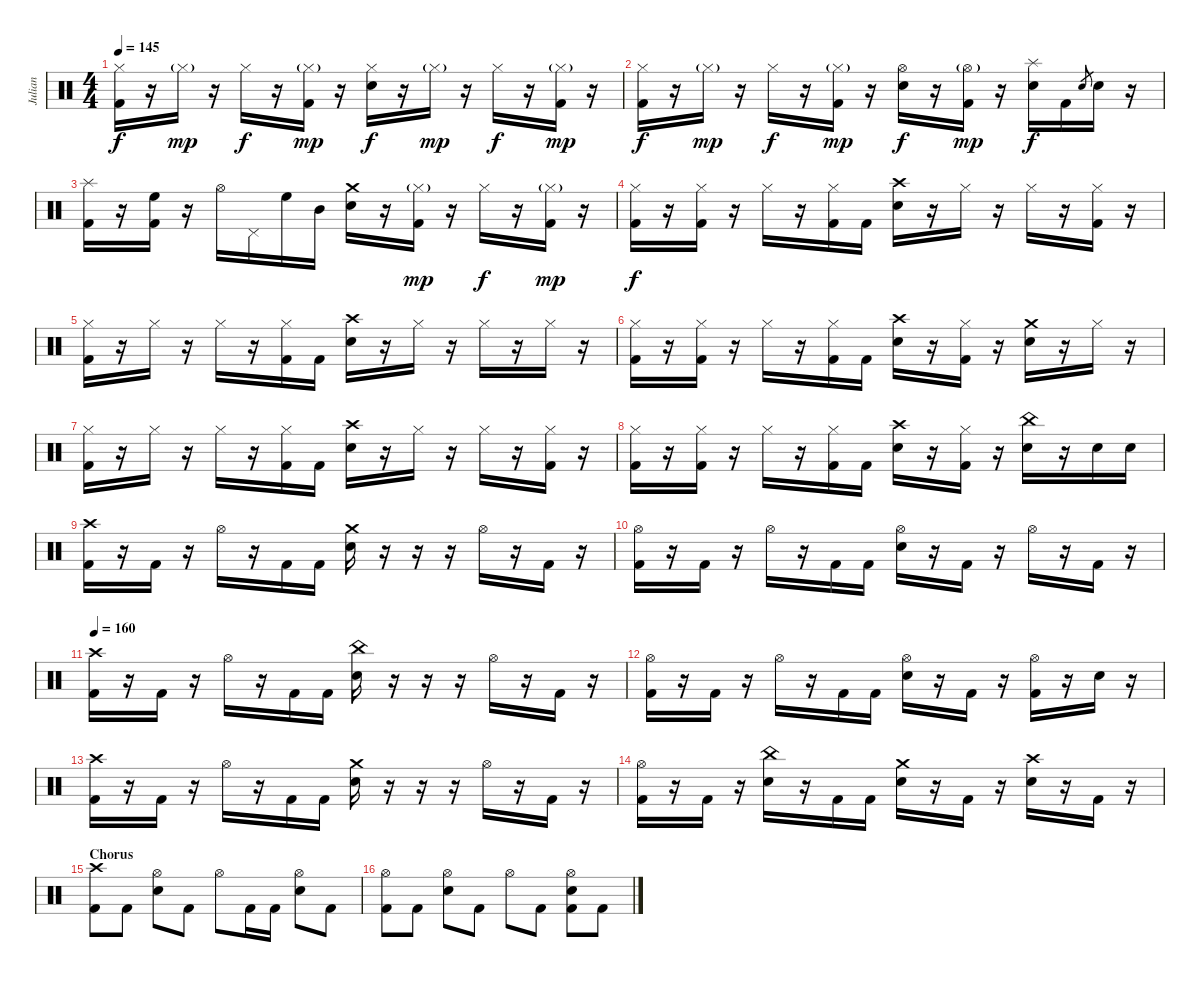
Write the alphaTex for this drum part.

\track ("Julian" "Julian") {instrument percussion}
\staff {score}
\articulation defaults
\ts (4 4)
\tempo 145
\clef neutral
\ks c
("Hi-Hat (closed)" "Kick (hit) 2").16{dy f} r.16 "Hi-Hat (closed)"{g}.16{dy mp} r.16 "Hi-Hat (closed)".16{dy f} r.16 ("Hi-Hat (closed)"{g} "Kick (hit) 2").16{dy mp} r.16 ("Hi-Hat (closed)" "Electric Snare (hit)").16{dy f} r.16 "Hi-Hat (closed)"{g}.16{dy mp} r.16 "Hi-Hat (closed)".16{dy f} r.16 ("Hi-Hat (closed)"{g} "Kick (hit) 2").16{dy mp} r.16 |
("Hi-Hat (closed)" "Kick (hit) 2").16{dy f} r.16 "Hi-Hat (closed)"{g}.16{dy mp} r.16 "Hi-Hat (closed)".16{dy f} r.16 ("Hi-Hat (closed)"{g} "Kick (hit) 2").16{dy mp} r.16 ("Hi-Hat (open)" "Electric Snare (hit)").16{dy f} r.16 ("Hi-Hat (open)"{g} "Kick (hit) 2").16{dy mp} r.16 ("Splash (hit)" "Electric Snare (hit)").16{dy f} "Kick (hit) 2".16 "Electric Snare (hit)".8{gr} "Electric Snare (hit)".16 r.16 |
\section ("" "")
("Splash (hit)" "Kick (hit) 2").16 r.16 ("High Floor Tom (hit)" "Kick (hit) 2").16 r.16 "Hi-Hat (open)".16 "Pedal Hi-Hat (hit)".16 "High Floor Tom (hit)".16 "Mid Tom (hit)".16 ("Crash medium (hit)" "Electric Snare (hit)").16 r.16 ("Hi-Hat (closed)"{g} "Kick (hit) 2").16{dy mp} r.16 "Hi-Hat (closed)".16{dy f} r.16 ("Hi-Hat (closed)"{g} "Kick (hit) 2").16{dy mp} r.16 |
("Hi-Hat (closed)" "Kick (hit) 2").16{dy f} r.16 ("Hi-Hat (closed)" "Kick (hit) 2").16 r.16 "Hi-Hat (closed)".16 r.16 ("Hi-Hat (closed)" "Kick (hit) 2").16 "Kick (hit) 2".16 ("Crash high (hit)" "Electric Snare (hit)").16 r.16 "Hi-Hat (closed)".16 r.16 "Hi-Hat (closed)".16 r.16 ("Hi-Hat (closed)" "Kick (hit) 2").16 r.16 |
("Hi-Hat (closed)" "Kick (hit) 2").16 r.16 "Hi-Hat (closed)".16 r.16 "Hi-Hat (closed)".16 r.16 ("Hi-Hat (closed)" "Kick (hit) 2").16 "Kick (hit) 2".16 ("Crash high (hit)" "Electric Snare (hit)").16 r.16 "Hi-Hat (closed)".16 r.16 "Hi-Hat (closed)".16 r.16 "Hi-Hat (closed)".16 r.16 |
("Hi-Hat (closed)" "Kick (hit) 2").16 r.16 ("Hi-Hat (closed)" "Kick (hit) 2").16 r.16 "Hi-Hat (closed)".16 r.16 ("Hi-Hat (closed)" "Kick (hit) 2").16 "Kick (hit) 2".16 ("Crash high (hit)" "Electric Snare (hit)").16 r.16 ("Hi-Hat (closed)" "Kick (hit) 2").16 r.16 ("Crash medium (hit)" "Electric Snare (hit)").16 r.16 "Hi-Hat (closed)".16 r.16 |
("Hi-Hat (closed)" "Kick (hit) 2").16 r.16 "Hi-Hat (closed)".16 r.16 "Hi-Hat (closed)".16 r.16 ("Hi-Hat (closed)" "Kick (hit) 2").16 "Kick (hit) 2".16 ("Crash high (hit)" "Electric Snare (hit)").16 r.16 "Hi-Hat (closed)".16 r.16 "Hi-Hat (closed)".16 r.16 ("Hi-Hat (closed)" "Kick (hit) 2").16 r.16 |
("Hi-Hat (closed)" "Kick (hit) 2").16 r.16 ("Hi-Hat (closed)" "Kick (hit) 2").16 r.16 "Hi-Hat (closed)".16 r.16 ("Hi-Hat (closed)" "Kick (hit) 2").16 "Kick (hit) 2".16 ("Crash high (hit)" "Electric Snare (hit)").16 r.16 ("Hi-Hat (closed)" "Kick (hit) 2").16 r.16 ("China (hit)" "Electric Snare (hit)").16 r.16 "Electric Snare (hit)".16 "Electric Snare (hit)".16 |
\section ("" "")
("Crash high (hit)" "Kick (hit) 2").16 r.16 "Kick (hit) 2".16 r.16 "Hi-Hat (open)".16 r.16 "Kick (hit) 2".16 "Kick (hit) 2".16 ("Crash medium (hit)" "Electric Snare (hit)").16 r.16 r.16 r.16 "Hi-Hat (open)".16 r.16 "Kick (hit) 2".16 r.16 |
("Hi-Hat (open)" "Kick (hit) 2").16 r.16 "Kick (hit) 2".16 r.16 "Hi-Hat (open)".16 r.16 "Kick (hit) 2".16 "Kick (hit) 2".16 ("Hi-Hat (open)" "Electric Snare (hit)").16 r.16 "Kick (hit) 2".16 r.16 "Hi-Hat (open)".16 r.16 "Kick (hit) 2".16 r.16 |
\tempo 160
("Crash high (hit)" "Kick (hit) 2").16 r.16 "Kick (hit) 2".16 r.16 "Hi-Hat (open)".16 r.16 "Kick (hit) 2".16 "Kick (hit) 2".16 ("China (hit)" "Electric Snare (hit)").16 r.16 r.16 r.16 "Hi-Hat (open)".16 r.16 "Kick (hit) 2".16 r.16 |
("Hi-Hat (open)" "Kick (hit) 2").16 r.16 "Kick (hit) 2".16 r.16 "Hi-Hat (open)".16 r.16 "Kick (hit) 2".16 "Kick (hit) 2".16 ("Hi-Hat (open)" "Electric Snare (hit)").16 r.16 "Kick (hit) 2".16 r.16 ("Hi-Hat (open)" "Kick (hit) 2").16 r.16 "Electric Snare (hit)".16 r.16 |
("Crash high (hit)" "Kick (hit) 2").16 r.16 "Kick (hit) 2".16 r.16 "Hi-Hat (open)".16 r.16 "Kick (hit) 2".16 "Kick (hit) 2".16 ("Crash medium (hit)" "Electric Snare (hit)").16 r.16 r.16 r.16 "Hi-Hat (open)".16 r.16 "Kick (hit) 2".16 r.16 |
("Hi-Hat (open)" "Kick (hit) 2").16 r.16 "Kick (hit) 2".16 r.16 ("China (hit)" "Electric Snare (hit)").16 r.16 "Kick (hit) 2".16 "Kick (hit) 2".16 ("Crash medium (hit)" "Electric Snare (hit)").16 r.16 "Kick (hit) 2".16 r.16 ("Crash high (hit)" "Electric Snare (hit)").16 r.16 "Kick (hit) 2".16 r.16 |
\section ("" "Chorus")
("Crash high (hit)" "Kick (hit) 2").8 "Kick (hit) 2".8 ("Hi-Hat (open)" "Electric Snare (hit)").8 "Kick (hit) 2".8 "Hi-Hat (open)".8 "Kick (hit) 2".16 "Kick (hit) 2".16 ("Hi-Hat (open)" "Electric Snare (hit)").8 "Kick (hit) 2".8 |
("Hi-Hat (open)" "Kick (hit) 2").8 "Kick (hit) 2".8 ("Hi-Hat (open)" "Electric Snare (hit)").8 "Kick (hit) 2".8 "Hi-Hat (open)".8 "Kick (hit) 2".8 ("Hi-Hat (open)" "Electric Snare (hit)" "Kick (hit) 2").8 "Kick (hit) 2".8
